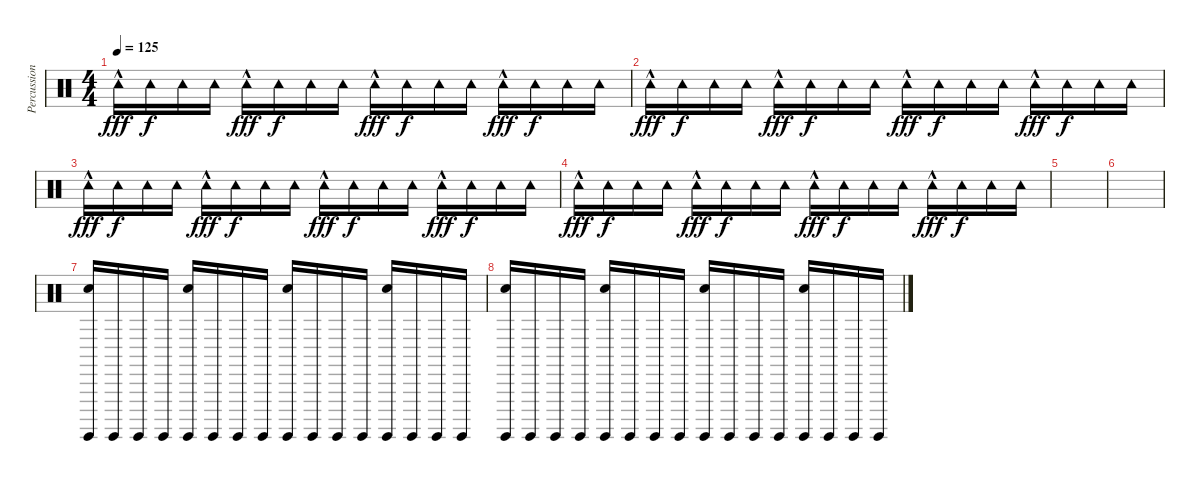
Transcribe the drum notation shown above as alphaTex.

\track ("Percussion" "Percussion") {instrument percussion}
\staff {score}
\articulation defaults
\ts (4 4)
\tempo 125
\clef neutral
\ks c "Tambourine (hit)"{hac}.16{dy fff} "Tambourine (hit)".16{dy f} "Tambourine (hit)".16 "Tambourine (hit)".16 "Tambourine (hit)"{hac}.16{dy fff} "Tambourine (hit)".16{dy f} "Tambourine (hit)".16 "Tambourine (hit)".16 "Tambourine (hit)"{hac}.16{dy fff} "Tambourine (hit)".16{dy f} "Tambourine (hit)".16 "Tambourine (hit)".16 "Tambourine (hit)"{hac}.16{dy fff} "Tambourine (hit)".16{dy f} "Tambourine (hit)".16 "Tambourine (hit)".16
|
"Tambourine (hit)"{hac}.16{dy fff} "Tambourine (hit)".16{dy f} "Tambourine (hit)".16 "Tambourine (hit)".16 "Tambourine (hit)"{hac}.16{dy fff} "Tambourine (hit)".16{dy f} "Tambourine (hit)".16 "Tambourine (hit)".16 "Tambourine (hit)"{hac}.16{dy fff} "Tambourine (hit)".16{dy f} "Tambourine (hit)".16 "Tambourine (hit)".16 "Tambourine (hit)"{hac}.16{dy fff} "Tambourine (hit)".16{dy f} "Tambourine (hit)".16 "Tambourine (hit)".16 |
"Tambourine (hit)"{hac}.16{dy fff} "Tambourine (hit)".16{dy f} "Tambourine (hit)".16 "Tambourine (hit)".16 "Tambourine (hit)"{hac}.16{dy fff} "Tambourine (hit)".16{dy f} "Tambourine (hit)".16 "Tambourine (hit)".16 "Tambourine (hit)"{hac}.16{dy fff} "Tambourine (hit)".16{dy f} "Tambourine (hit)".16 "Tambourine (hit)".16 "Tambourine (hit)"{hac}.16{dy fff} "Tambourine (hit)".16{dy f} "Tambourine (hit)".16 "Tambourine (hit)".16 |
"Tambourine (hit)"{hac}.16{dy fff} "Tambourine (hit)".16{dy f} "Tambourine (hit)".16 "Tambourine (hit)".16 "Tambourine (hit)"{hac}.16{dy fff} "Tambourine (hit)".16{dy f} "Tambourine (hit)".16 "Tambourine (hit)".16 "Tambourine (hit)"{hac}.16{dy fff} "Tambourine (hit)".16{dy f} "Tambourine (hit)".16 "Tambourine (hit)".16 "Tambourine (hit)"{hac}.16{dy fff} "Tambourine (hit)".16{dy f} "Tambourine (hit)".16 "Tambourine (hit)".16 |
|
|
("Hand Clap (hit)" "Surdo (hit)").16 "Surdo (hit)".16 "Surdo (hit)".16 "Surdo (hit)".16 ("Hand Clap (hit)" "Surdo (hit)").16 "Surdo (hit)".16 "Surdo (hit)".16 "Surdo (hit)".16 ("Hand Clap (hit)" "Surdo (hit)").16 "Surdo (hit)".16 "Surdo (hit)".16 "Surdo (hit)".16 ("Hand Clap (hit)" "Surdo (hit)").16 "Surdo (hit)".16 "Surdo (hit)".16 "Surdo (hit)".16 |
("Hand Clap (hit)" "Surdo (hit)").16 "Surdo (hit)".16 "Surdo (hit)".16 "Surdo (hit)".16 ("Hand Clap (hit)" "Surdo (hit)").16 "Surdo (hit)".16 "Surdo (hit)".16 "Surdo (hit)".16 ("Hand Clap (hit)" "Surdo (hit)").16 "Surdo (hit)".16 "Surdo (hit)".16 "Surdo (hit)".16 ("Hand Clap (hit)" "Surdo (hit)").16 "Surdo (hit)".16 "Surdo (hit)".16 "Surdo (hit)".16
